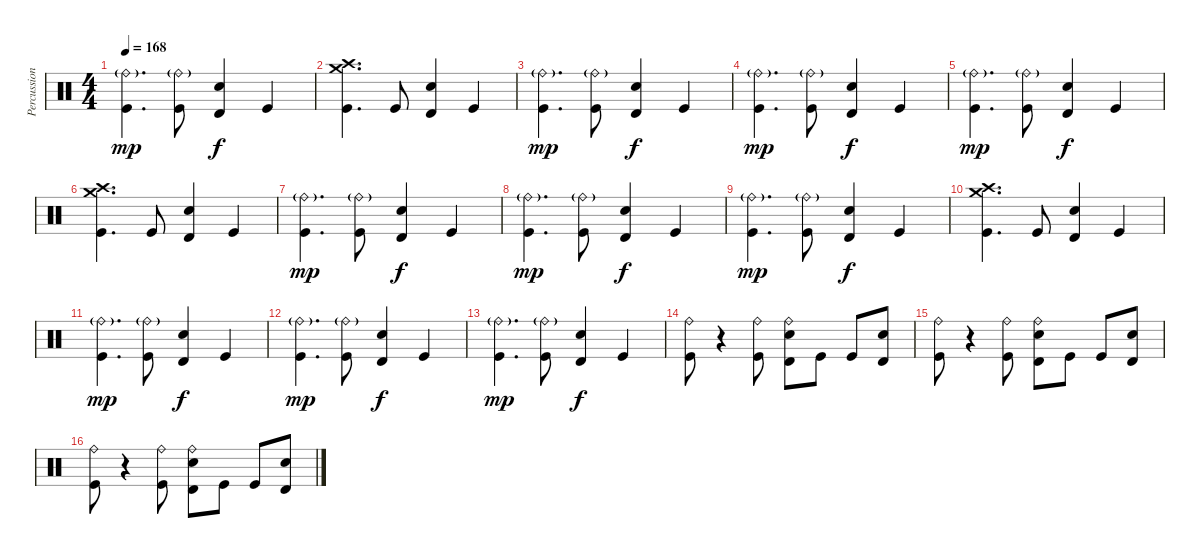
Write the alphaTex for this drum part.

\track ("Percussion" "Percussion") {instrument percussion}
\staff {score}
\articulation defaults
\ts (4 4)
\tempo 168
\clef neutral
\ks c
("Ride (bell)"{g} "Kick (hit)").4{d dy mp} ("Ride (bell)"{g} "Kick (hit)").8 ("Timbale high (hit)" "Electric Snare (hit)").4{dy f} "Kick (hit)".4 |
("Crash medium (hit)" "Crash high (hit)" "Kick (hit)").4{d} "Kick (hit)".8 ("Timbale high (hit)" "Electric Snare (hit)").4 "Kick (hit)".4 |
("Ride (bell)"{g} "Kick (hit)").4{d dy mp} ("Ride (bell)"{g} "Kick (hit)").8 ("Timbale high (hit)" "Electric Snare (hit)").4{dy f} "Kick (hit)".4 |
("Ride (bell)"{g} "Kick (hit)").4{d dy mp} ("Ride (bell)"{g} "Kick (hit)").8 ("Timbale high (hit)" "Electric Snare (hit)").4{dy f} "Kick (hit)".4 |
("Ride (bell)"{g} "Kick (hit)").4{d dy mp} ("Ride (bell)"{g} "Kick (hit)").8 ("Timbale high (hit)" "Electric Snare (hit)").4{dy f} "Kick (hit)".4 |
("Crash medium (hit)" "Crash high (hit)" "Kick (hit)").4{d} "Kick (hit)".8 ("Timbale high (hit)" "Electric Snare (hit)").4 "Kick (hit)".4 |
("Ride (bell)"{g} "Kick (hit)").4{d dy mp} ("Ride (bell)"{g} "Kick (hit)").8 ("Timbale high (hit)" "Electric Snare (hit)").4{dy f} "Kick (hit)".4 |
("Ride (bell)"{g} "Kick (hit)").4{d dy mp} ("Ride (bell)"{g} "Kick (hit)").8 ("Timbale high (hit)" "Electric Snare (hit)").4{dy f} "Kick (hit)".4 |
("Ride (bell)"{g} "Kick (hit)").4{d dy mp} ("Ride (bell)"{g} "Kick (hit)").8 ("Timbale high (hit)" "Electric Snare (hit)").4{dy f} "Kick (hit)".4 |
("Crash medium (hit)" "Crash high (hit)" "Kick (hit)").4{d} "Kick (hit)".8 ("Timbale high (hit)" "Electric Snare (hit)").4 "Kick (hit)".4 |
("Ride (bell)"{g} "Kick (hit)").4{d dy mp} ("Ride (bell)"{g} "Kick (hit)").8 ("Timbale high (hit)" "Electric Snare (hit)").4{dy f} "Kick (hit)".4 |
("Ride (bell)"{g} "Kick (hit)").4{d dy mp} ("Ride (bell)"{g} "Kick (hit)").8 ("Timbale high (hit)" "Electric Snare (hit)").4{dy f} "Kick (hit)".4 |
("Ride (bell)"{g} "Kick (hit)").4{d dy mp} ("Ride (bell)"{g} "Kick (hit)").8 ("Timbale high (hit)" "Electric Snare (hit)").4{dy f} "Kick (hit)".4 |
("Ride (bell)" "Kick (hit)").8 r.4 ("Ride (bell)" "Kick (hit)").8 ("Ride (bell)" "Timbale high (hit)" "Electric Snare (hit)").8 "Kick (hit)".8 "Kick (hit)".8 ("Timbale high (hit)" "Electric Snare (hit)").8 |
("Ride (bell)" "Kick (hit)").8 r.4 ("Ride (bell)" "Kick (hit)").8 ("Ride (bell)" "Timbale high (hit)" "Electric Snare (hit)").8 "Kick (hit)".8 "Kick (hit)".8 ("Timbale high (hit)" "Electric Snare (hit)").8 |
("Ride (bell)" "Kick (hit)").8 r.4 ("Ride (bell)" "Kick (hit)").8 ("Ride (bell)" "Timbale high (hit)" "Electric Snare (hit)").8 "Kick (hit)".8 "Kick (hit)".8 ("Timbale high (hit)" "Electric Snare (hit)").8
